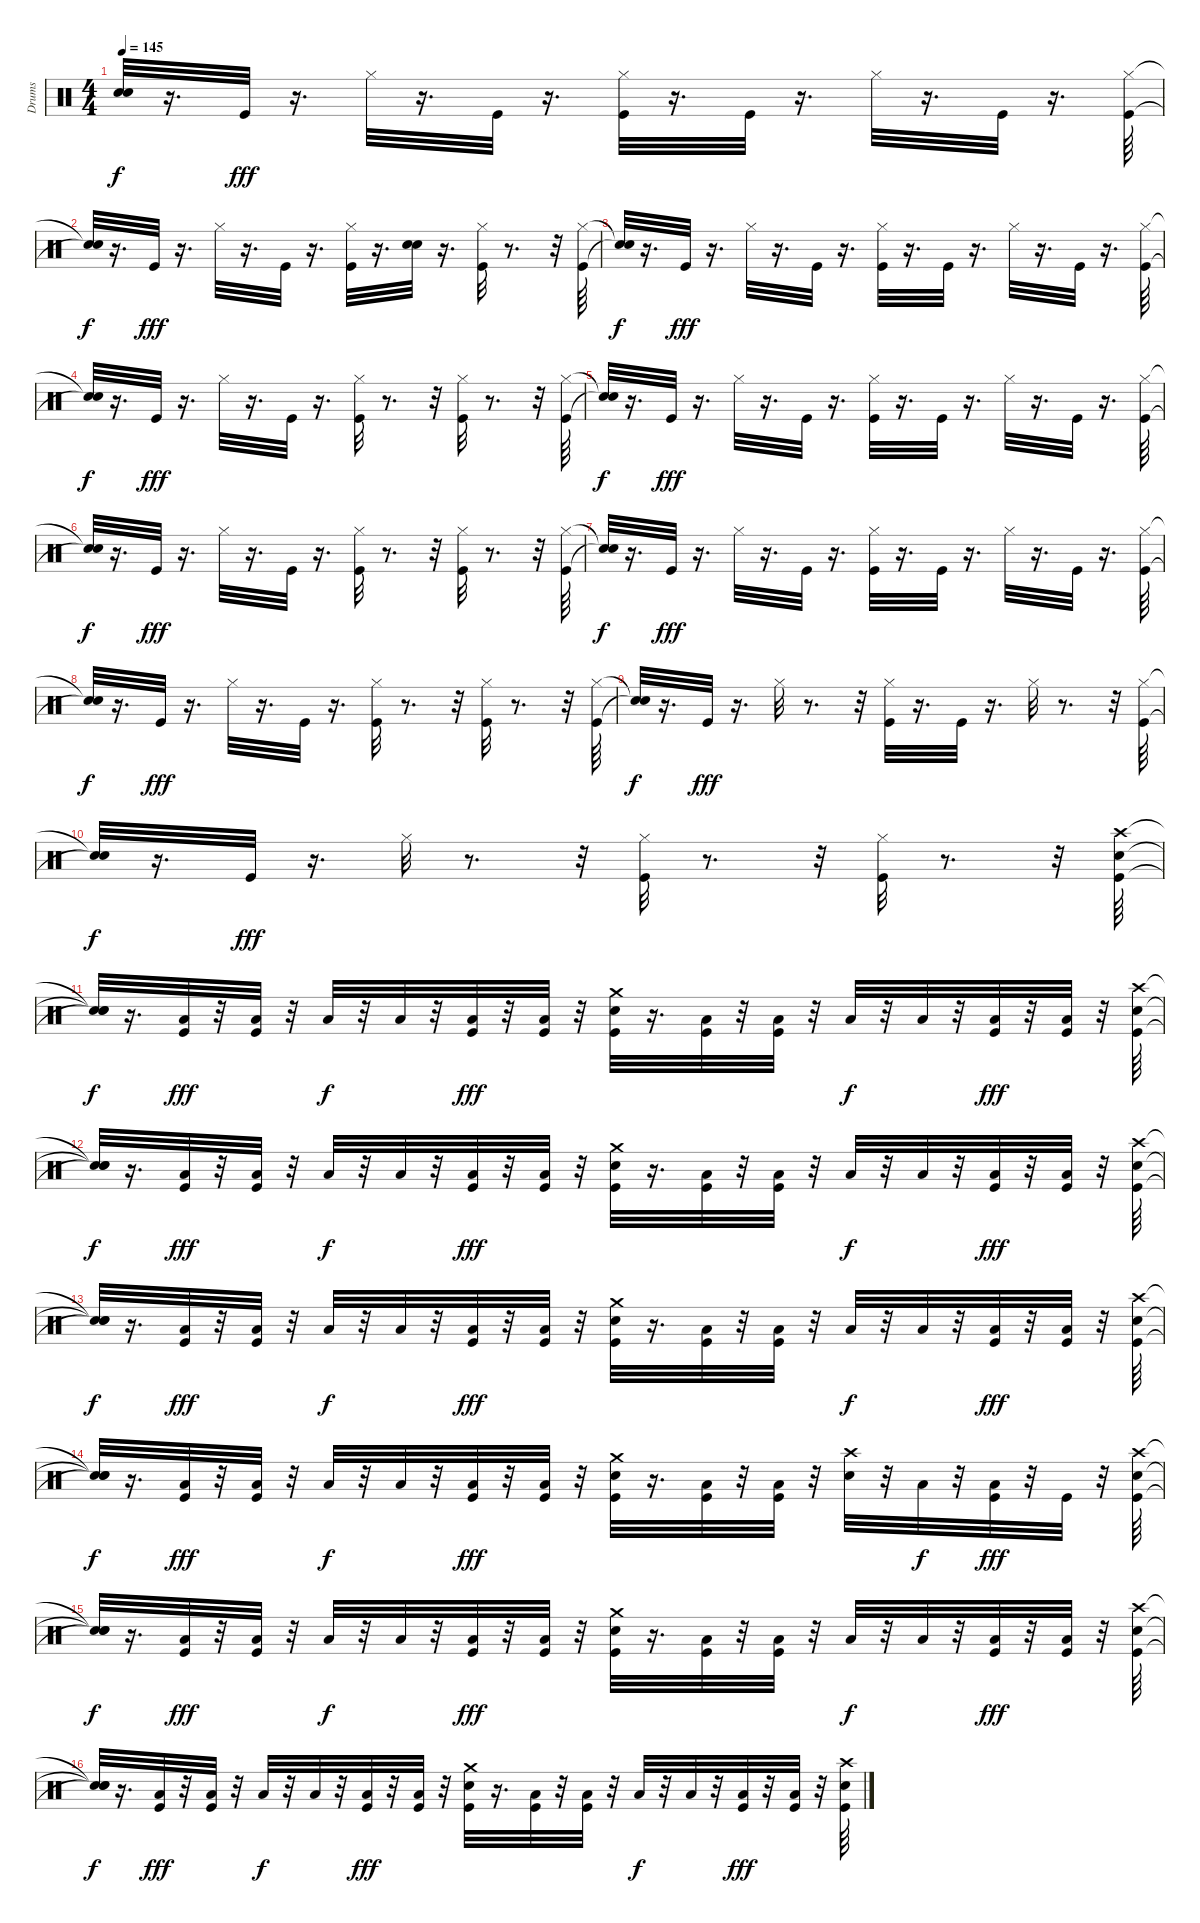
\track ("Drums" "Drums") {instrument percussion}
\staff {score}
\articulation defaults
\ts (4 4)
\tempo 145
\clef neutral
\ks c
("Snare (hit)"{t} "Snare (hit)"{t}).32{dy f} r.16{d} "Kick (hit)".32{dy fff} r.16{d} "Hi-Hat (closed)".32 r.16{d} "Kick (hit)".32 r.16{d} ("Kick (hit)" "Hi-Hat (closed)").32 r.16{d} "Kick (hit)".32 r.16{d} "Hi-Hat (closed)".32 r.16{d} "Kick (hit)".32 r.16{d} ("Kick (hit)" "Hi-Hat (closed)").64 |
("Snare (hit)"{t} "Snare (hit)"{t}).32{dy f} r.16{d} "Kick (hit)".32{dy fff} r.16{d} "Hi-Hat (closed)".32 r.16{d} "Kick (hit)".32 r.16{d} ("Kick (hit)" "Hi-Hat (closed)").32 r.16{d} ("Snare (hit) 2" "Electric Snare (hit)").32 r.16{d} ("Kick (hit)" "Hi-Hat (closed)").32 r.8{d} r.32 ("Kick (hit)" "Hi-Hat (closed)").64 |
("Snare (hit)"{t} "Snare (hit)"{t}).32{dy f} r.16{d} "Kick (hit)".32{dy fff} r.16{d} "Hi-Hat (closed)".32 r.16{d} "Kick (hit)".32 r.16{d} ("Kick (hit)" "Hi-Hat (closed)").32 r.16{d} "Kick (hit)".32 r.16{d} "Hi-Hat (closed)".32 r.16{d} "Kick (hit)".32 r.16{d} ("Kick (hit)" "Hi-Hat (closed)").64 |
("Snare (hit)"{t} "Snare (hit)"{t}).32{dy f} r.16{d} "Kick (hit)".32{dy fff} r.16{d} "Hi-Hat (closed)".32 r.16{d} "Kick (hit)".32 r.16{d} ("Kick (hit)" "Hi-Hat (closed)").32 r.8{d} r.32 ("Kick (hit)" "Hi-Hat (closed)").32 r.8{d} r.32 ("Kick (hit)" "Hi-Hat (closed)").64 |
("Snare (hit)"{t} "Snare (hit)"{t}).32{dy f} r.16{d} "Kick (hit)".32{dy fff} r.16{d} "Hi-Hat (closed)".32 r.16{d} "Kick (hit)".32 r.16{d} ("Kick (hit)" "Hi-Hat (closed)").32 r.16{d} "Kick (hit)".32 r.16{d} "Hi-Hat (closed)".32 r.16{d} "Kick (hit)".32 r.16{d} ("Kick (hit)" "Hi-Hat (closed)").64 |
("Snare (hit)"{t} "Snare (hit)"{t}).32{dy f} r.16{d} "Kick (hit)".32{dy fff} r.16{d} "Hi-Hat (closed)".32 r.16{d} "Kick (hit)".32 r.16{d} ("Kick (hit)" "Hi-Hat (closed)").32 r.8{d} r.32 ("Kick (hit)" "Hi-Hat (closed)").32 r.8{d} r.32 ("Kick (hit)" "Hi-Hat (closed)").64 |
("Snare (hit)"{t} "Snare (hit)"{t}).32{dy f} r.16{d} "Kick (hit)".32{dy fff} r.16{d} "Hi-Hat (closed)".32 r.16{d} "Kick (hit)".32 r.16{d} ("Kick (hit)" "Hi-Hat (closed)").32 r.16{d} "Kick (hit)".32 r.16{d} "Hi-Hat (closed)".32 r.16{d} "Kick (hit)".32 r.16{d} ("Kick (hit)" "Hi-Hat (closed)").64 |
("Snare (hit)"{t} "Snare (hit)"{t}).32{dy f} r.16{d} "Kick (hit)".32{dy fff} r.16{d} "Hi-Hat (closed)".32 r.16{d} "Kick (hit)".32 r.16{d} ("Kick (hit)" "Hi-Hat (closed)").32 r.8{d} r.32 ("Kick (hit)" "Hi-Hat (closed)").32 r.8{d} r.32 ("Kick (hit)" "Hi-Hat (closed)").64 |
("Snare (hit)"{t} "Snare (hit)"{t}).32{dy f} r.16{d} "Kick (hit)".32{dy fff} r.16{d} "Hi-Hat (closed)".32 r.8{d} r.32 ("Kick (hit)" "Hi-Hat (closed)").32 r.16{d} "Kick (hit)".32 r.16{d} "Hi-Hat (closed)".32 r.8{d} r.32 ("Kick (hit)" "Hi-Hat (closed)").64 |
("Snare (hit)"{t} "Snare (hit)"{t}).32{dy f} r.16{d} "Kick (hit)".32{dy fff} r.16{d} "Hi-Hat (closed)".32 r.8{d} r.32 ("Kick (hit)" "Hi-Hat (closed)").32 r.8{d} r.32 ("Kick (hit)" "Hi-Hat (closed)").32 r.8{d} r.32 ("Kick (hit)" "Electric Snare (hit)" "Crash high (hit)").64 |
("Snare (hit)"{t} "Snare (hit)"{t} "Snare (hit)"{t}).32{dy f} r.16{d} ("Kick (hit)" "Low Floor Tom (hit)").32{dy fff} r.32 ("Kick (hit)" "Low Tom (hit)").32 r.32 "Low Tom (hit)".32{dy f} r.32 "Low Floor Tom (hit)".32 r.32 ("Kick (hit)" "Low Floor Tom (hit)").32{dy fff} r.32 ("Kick (hit)" "Low Floor Tom (hit)").32 r.32 ("Kick (hit)" "Electric Snare (hit)" "Crash medium (hit)").32 r.16{d} ("Kick (hit)" "Low Tom (hit)").32 r.32 ("Kick (hit)" "Low Floor Tom (hit)").32 r.32 "Low Tom (hit)".32{dy f} r.32 "Low Floor Tom (hit)".32 r.32 ("Kick (hit)" "Low Floor Tom (hit)").32{dy fff} r.32 ("Kick (hit)" "Low Floor Tom (hit)").32 r.32 ("Kick (hit)" "Electric Snare (hit)" "Crash high (hit)").64 |
("Snare (hit)"{t} "Snare (hit)"{t} "Snare (hit)"{t}).32{dy f} r.16{d} ("Kick (hit)" "Low Floor Tom (hit)").32{dy fff} r.32 ("Kick (hit)" "Low Tom (hit)").32 r.32 "Low Tom (hit)".32{dy f} r.32 "Low Floor Tom (hit)".32 r.32 ("Kick (hit)" "Low Floor Tom (hit)").32{dy fff} r.32 ("Kick (hit)" "Low Floor Tom (hit)").32 r.32 ("Kick (hit)" "Electric Snare (hit)" "Crash medium (hit)").32 r.16{d} ("Kick (hit)" "Low Tom (hit)").32 r.32 ("Kick (hit)" "Low Floor Tom (hit)").32 r.32 "Low Tom (hit)".32{dy f} r.32 "Low Floor Tom (hit)".32 r.32 ("Kick (hit)" "Low Floor Tom (hit)").32{dy fff} r.32 ("Kick (hit)" "Low Floor Tom (hit)").32 r.32 ("Kick (hit)" "Electric Snare (hit)" "Crash high (hit)").64 |
("Snare (hit)"{t} "Snare (hit)"{t} "Snare (hit)"{t}).32{dy f} r.16{d} ("Kick (hit)" "Low Floor Tom (hit)").32{dy fff} r.32 ("Kick (hit)" "Low Tom (hit)").32 r.32 "Low Tom (hit)".32{dy f} r.32 "Low Floor Tom (hit)".32 r.32 ("Kick (hit)" "Low Floor Tom (hit)").32{dy fff} r.32 ("Kick (hit)" "Low Floor Tom (hit)").32 r.32 ("Kick (hit)" "Electric Snare (hit)" "Crash medium (hit)").32 r.16{d} ("Kick (hit)" "Low Tom (hit)").32 r.32 ("Kick (hit)" "Low Floor Tom (hit)").32 r.32 "Low Tom (hit)".32{dy f} r.32 "Low Floor Tom (hit)".32 r.32 ("Kick (hit)" "Low Floor Tom (hit)").32{dy fff} r.32 ("Kick (hit)" "Low Floor Tom (hit)").32 r.32 ("Kick (hit)" "Electric Snare (hit)" "Crash high (hit)").64 |
("Snare (hit)"{t} "Snare (hit)"{t} "Snare (hit)"{t}).32{dy f} r.16{d} ("Kick (hit)" "Low Floor Tom (hit)").32{dy fff} r.32 ("Kick (hit)" "Low Tom (hit)").32 r.32 "Low Tom (hit)".32{dy f} r.32 "Low Floor Tom (hit)".32 r.32 ("Kick (hit)" "Low Floor Tom (hit)").32{dy fff} r.32 ("Kick (hit)" "Low Floor Tom (hit)").32 r.32 ("Kick (hit)" "Electric Snare (hit)" "Crash medium (hit)").32 r.16{d} ("Kick (hit)" "Low Tom (hit)").32 r.32 ("Kick (hit)" "Low Floor Tom (hit)").32 r.32 ("Electric Snare (hit)" "Crash high (hit)").32 r.32 "Low Floor Tom (hit)".32{dy f} r.32 ("Kick (hit)" "Low Floor Tom (hit)").32{dy fff} r.32 "Kick (hit)".32 r.32 ("Kick (hit)" "Electric Snare (hit)" "Crash high (hit)").64 |
("Snare (hit)"{t} "Snare (hit)"{t} "Snare (hit)"{t}).32{dy f} r.16{d} ("Kick (hit)" "Low Floor Tom (hit)").32{dy fff} r.32 ("Kick (hit)" "Low Tom (hit)").32 r.32 "Low Tom (hit)".32{dy f} r.32 "Low Floor Tom (hit)".32 r.32 ("Kick (hit)" "Low Floor Tom (hit)").32{dy fff} r.32 ("Kick (hit)" "Low Floor Tom (hit)").32 r.32 ("Crash medium (hit)" "Kick (hit)" "Electric Snare (hit)").32 r.16{d} ("Kick (hit)" "Low Tom (hit)").32 r.32 ("Kick (hit)" "Low Floor Tom (hit)").32 r.32 "Low Tom (hit)".32{dy f} r.32 "Low Floor Tom (hit)".32 r.32 ("Kick (hit)" "Low Floor Tom (hit)").32{dy fff} r.32 ("Kick (hit)" "Low Floor Tom (hit)").32 r.32 ("Kick (hit)" "Electric Snare (hit)" "Crash high (hit)").64 |
("Snare (hit)"{t} "Snare (hit)"{t} "Snare (hit)"{t}).32{dy f} r.16{d} ("Kick (hit)" "Low Floor Tom (hit)").32{dy fff} r.32 ("Kick (hit)" "Low Tom (hit)").32 r.32 "Low Tom (hit)".32{dy f} r.32 "Low Floor Tom (hit)".32 r.32 ("Kick (hit)" "Low Floor Tom (hit)").32{dy fff} r.32 ("Kick (hit)" "Low Floor Tom (hit)").32 r.32 ("Crash medium (hit)" "Kick (hit)" "Electric Snare (hit)").32 r.16{d} ("Kick (hit)" "Low Tom (hit)").32 r.32 ("Kick (hit)" "Low Floor Tom (hit)").32 r.32 "Low Tom (hit)".32{dy f} r.32 "Low Floor Tom (hit)".32 r.32 ("Kick (hit)" "Low Floor Tom (hit)").32{dy fff} r.32 ("Kick (hit)" "Low Floor Tom (hit)").32 r.32 ("Kick (hit)" "Electric Snare (hit)" "Crash high (hit)").64
